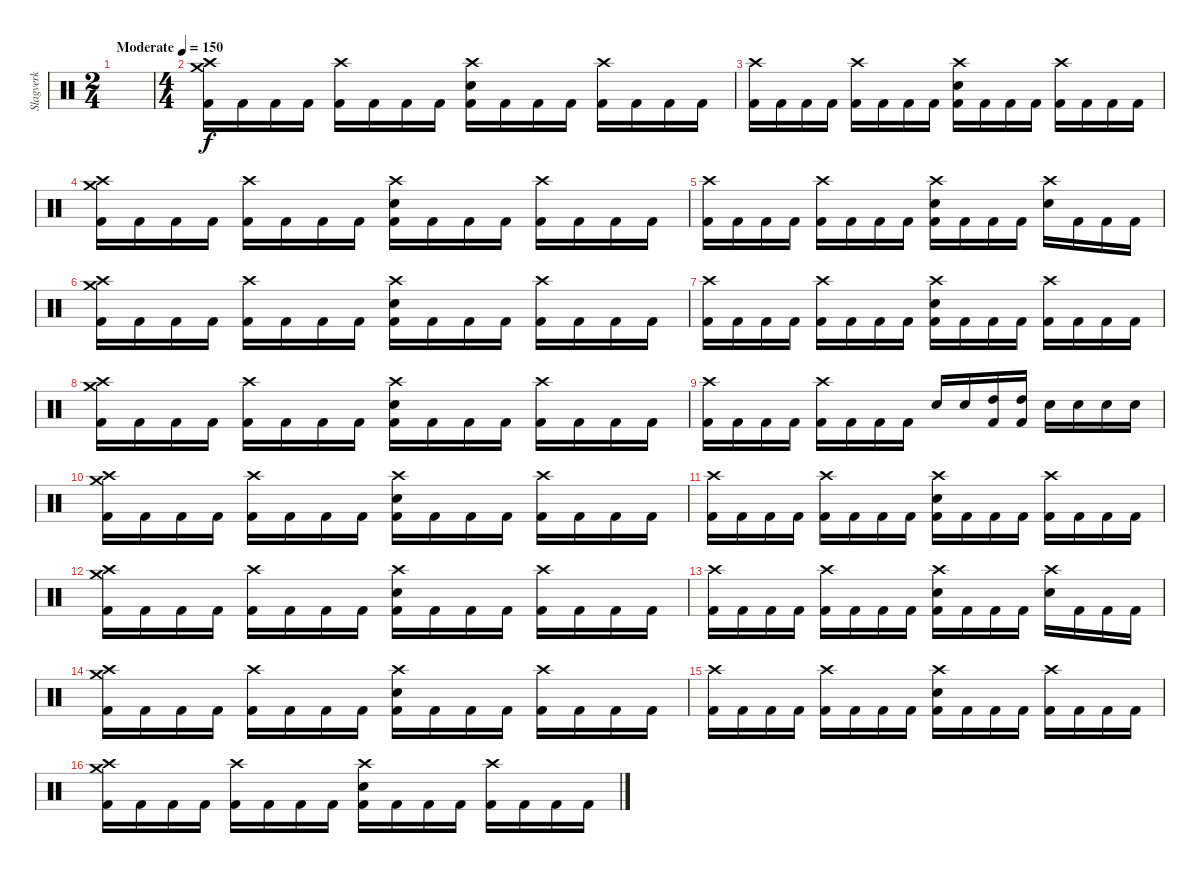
\track ("Slagverk" "Slagverk") {instrument percussion}
\staff {score}
\articulation defaults
\ts (2 4)
\tempo (150 "Moderate")
\clef neutral
\ks c
|
\ts (4 4)
("Crash medium (hit)" "Crash high (hit)" "Kick (hit) 2").16 "Kick (hit) 2".16 "Kick (hit) 2".16 "Kick (hit) 2".16 ("Crash high (hit)" "Kick (hit) 2").16 "Kick (hit) 2".16 "Kick (hit) 2".16 "Kick (hit) 2".16 ("Crash high (hit)" "Snare (hit) 2" "Kick (hit) 2").16 "Kick (hit) 2".16 "Kick (hit) 2".16 "Kick (hit) 2".16 ("Crash high (hit)" "Kick (hit) 2").16 "Kick (hit) 2".16 "Kick (hit) 2".16 "Kick (hit) 2".16 |
("Crash high (hit)" "Kick (hit) 2").16 "Kick (hit) 2".16 "Kick (hit) 2".16 "Kick (hit) 2".16 ("Crash high (hit)" "Kick (hit) 2").16 "Kick (hit) 2".16 "Kick (hit) 2".16 "Kick (hit) 2".16 ("Crash high (hit)" "Snare (hit) 2" "Kick (hit) 2").16 "Kick (hit) 2".16 "Kick (hit) 2".16 "Kick (hit) 2".16 ("Crash high (hit)" "Kick (hit) 2").16 "Kick (hit) 2".16 "Kick (hit) 2".16 "Kick (hit) 2".16 |
("Crash medium (hit)" "Crash high (hit)" "Kick (hit) 2").16 "Kick (hit) 2".16 "Kick (hit) 2".16 "Kick (hit) 2".16 ("Crash high (hit)" "Kick (hit) 2").16 "Kick (hit) 2".16 "Kick (hit) 2".16 "Kick (hit) 2".16 ("Crash high (hit)" "Snare (hit) 2" "Kick (hit) 2").16 "Kick (hit) 2".16 "Kick (hit) 2".16 "Kick (hit) 2".16 ("Crash high (hit)" "Kick (hit) 2").16 "Kick (hit) 2".16 "Kick (hit) 2".16 "Kick (hit) 2".16 |
("Crash high (hit)" "Kick (hit) 2").16 "Kick (hit) 2".16 "Kick (hit) 2".16 "Kick (hit) 2".16 ("Crash high (hit)" "Kick (hit) 2").16 "Kick (hit) 2".16 "Kick (hit) 2".16 "Kick (hit) 2".16 ("Crash high (hit)" "Snare (hit) 2" "Kick (hit) 2").16 "Kick (hit) 2".16 "Kick (hit) 2".16 "Kick (hit) 2".16 ("Crash high (hit)" "Snare (hit) 2").16 "Kick (hit) 2".16 "Kick (hit) 2".16 "Kick (hit) 2".16 |
("Crash medium (hit)" "Crash high (hit)" "Kick (hit) 2").16 "Kick (hit) 2".16 "Kick (hit) 2".16 "Kick (hit) 2".16 ("Crash high (hit)" "Kick (hit) 2").16 "Kick (hit) 2".16 "Kick (hit) 2".16 "Kick (hit) 2".16 ("Crash high (hit)" "Snare (hit) 2" "Kick (hit) 2").16 "Kick (hit) 2".16 "Kick (hit) 2".16 "Kick (hit) 2".16 ("Crash high (hit)" "Kick (hit) 2").16 "Kick (hit) 2".16 "Kick (hit) 2".16 "Kick (hit) 2".16 |
("Crash high (hit)" "Kick (hit) 2").16 "Kick (hit) 2".16 "Kick (hit) 2".16 "Kick (hit) 2".16 ("Crash high (hit)" "Kick (hit) 2").16 "Kick (hit) 2".16 "Kick (hit) 2".16 "Kick (hit) 2".16 ("Crash high (hit)" "Snare (hit) 2" "Kick (hit) 2").16 "Kick (hit) 2".16 "Kick (hit) 2".16 "Kick (hit) 2".16 ("Crash high (hit)" "Kick (hit) 2").16 "Kick (hit) 2".16 "Kick (hit) 2".16 "Kick (hit) 2".16 |
("Crash medium (hit)" "Crash high (hit)" "Kick (hit) 2").16 "Kick (hit) 2".16 "Kick (hit) 2".16 "Kick (hit) 2".16 ("Crash high (hit)" "Kick (hit) 2").16 "Kick (hit) 2".16 "Kick (hit) 2".16 "Kick (hit) 2".16 ("Crash high (hit)" "Snare (hit) 2" "Kick (hit) 2").16 "Kick (hit) 2".16 "Kick (hit) 2".16 "Kick (hit) 2".16 ("Crash high (hit)" "Kick (hit) 2").16 "Kick (hit) 2".16 "Kick (hit) 2".16 "Kick (hit) 2".16 |
("Crash high (hit)" "Kick (hit) 2").16 "Kick (hit) 2".16 "Kick (hit) 2".16 "Kick (hit) 2".16 ("Crash high (hit)" "Kick (hit) 2").16 "Kick (hit) 2".16 "Kick (hit) 2".16 "Kick (hit) 2".16 "Snare (hit) 2".16 "Snare (hit) 2".16 ("High Tom (hit)" "Kick (hit) 2").16 ("High Tom (hit)" "Kick (hit) 2").16 "Snare (hit) 2".16 "Snare (hit) 2".16 "Snare (hit) 2".16 "Snare (hit) 2".16 |
("Crash medium (hit)" "Crash high (hit)" "Kick (hit) 2").16 "Kick (hit) 2".16 "Kick (hit) 2".16 "Kick (hit) 2".16 ("Crash high (hit)" "Kick (hit) 2").16 "Kick (hit) 2".16 "Kick (hit) 2".16 "Kick (hit) 2".16 ("Crash high (hit)" "Snare (hit) 2" "Kick (hit) 2").16 "Kick (hit) 2".16 "Kick (hit) 2".16 "Kick (hit) 2".16 ("Crash high (hit)" "Kick (hit) 2").16 "Kick (hit) 2".16 "Kick (hit) 2".16 "Kick (hit) 2".16 |
("Crash high (hit)" "Kick (hit) 2").16 "Kick (hit) 2".16 "Kick (hit) 2".16 "Kick (hit) 2".16 ("Crash high (hit)" "Kick (hit) 2").16 "Kick (hit) 2".16 "Kick (hit) 2".16 "Kick (hit) 2".16 ("Crash high (hit)" "Snare (hit) 2" "Kick (hit) 2").16 "Kick (hit) 2".16 "Kick (hit) 2".16 "Kick (hit) 2".16 ("Crash high (hit)" "Kick (hit) 2").16 "Kick (hit) 2".16 "Kick (hit) 2".16 "Kick (hit) 2".16 |
("Crash medium (hit)" "Crash high (hit)" "Kick (hit) 2").16 "Kick (hit) 2".16 "Kick (hit) 2".16 "Kick (hit) 2".16 ("Crash high (hit)" "Kick (hit) 2").16 "Kick (hit) 2".16 "Kick (hit) 2".16 "Kick (hit) 2".16 ("Crash high (hit)" "Snare (hit) 2" "Kick (hit) 2").16 "Kick (hit) 2".16 "Kick (hit) 2".16 "Kick (hit) 2".16 ("Crash high (hit)" "Kick (hit) 2").16 "Kick (hit) 2".16 "Kick (hit) 2".16 "Kick (hit) 2".16 |
("Crash high (hit)" "Kick (hit) 2").16 "Kick (hit) 2".16 "Kick (hit) 2".16 "Kick (hit) 2".16 ("Crash high (hit)" "Kick (hit) 2").16 "Kick (hit) 2".16 "Kick (hit) 2".16 "Kick (hit) 2".16 ("Crash high (hit)" "Snare (hit) 2" "Kick (hit) 2").16 "Kick (hit) 2".16 "Kick (hit) 2".16 "Kick (hit) 2".16 ("Crash high (hit)" "Snare (hit) 2").16 "Kick (hit) 2".16 "Kick (hit) 2".16 "Kick (hit) 2".16 |
("Crash medium (hit)" "Crash high (hit)" "Kick (hit) 2").16 "Kick (hit) 2".16 "Kick (hit) 2".16 "Kick (hit) 2".16 ("Crash high (hit)" "Kick (hit) 2").16 "Kick (hit) 2".16 "Kick (hit) 2".16 "Kick (hit) 2".16 ("Crash high (hit)" "Snare (hit) 2" "Kick (hit) 2").16 "Kick (hit) 2".16 "Kick (hit) 2".16 "Kick (hit) 2".16 ("Crash high (hit)" "Kick (hit) 2").16 "Kick (hit) 2".16 "Kick (hit) 2".16 "Kick (hit) 2".16 |
("Crash high (hit)" "Kick (hit) 2").16 "Kick (hit) 2".16 "Kick (hit) 2".16 "Kick (hit) 2".16 ("Crash high (hit)" "Kick (hit) 2").16 "Kick (hit) 2".16 "Kick (hit) 2".16 "Kick (hit) 2".16 ("Crash high (hit)" "Snare (hit) 2" "Kick (hit) 2").16 "Kick (hit) 2".16 "Kick (hit) 2".16 "Kick (hit) 2".16 ("Crash high (hit)" "Kick (hit) 2").16 "Kick (hit) 2".16 "Kick (hit) 2".16 "Kick (hit) 2".16 |
("Crash medium (hit)" "Crash high (hit)" "Kick (hit) 2").16 "Kick (hit) 2".16 "Kick (hit) 2".16 "Kick (hit) 2".16 ("Crash high (hit)" "Kick (hit) 2").16 "Kick (hit) 2".16 "Kick (hit) 2".16 "Kick (hit) 2".16 ("Crash high (hit)" "Snare (hit) 2" "Kick (hit) 2").16 "Kick (hit) 2".16 "Kick (hit) 2".16 "Kick (hit) 2".16 ("Crash high (hit)" "Kick (hit) 2").16 "Kick (hit) 2".16 "Kick (hit) 2".16 "Kick (hit) 2".16
